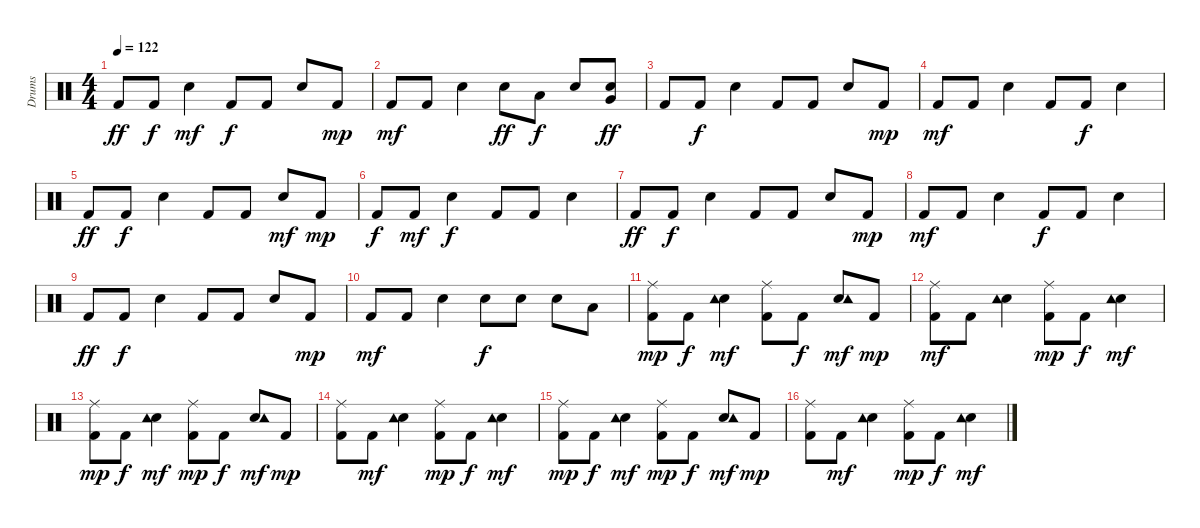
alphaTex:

\track ("Drums" "Drums") {instrument percussion}
\staff {score}
\articulation defaults
\ts (4 4)
\tempo 122
\clef neutral
\ks c "Kick (hit) 2".8{dy ff} "Kick (hit) 2".8{dy f} "Snare (hit) 2".4{dy mf} "Kick (hit) 2".8{dy f} "Kick (hit) 2".8 "Snare (hit) 2".8 "Kick (hit) 2".8{dy mp}
|
"Kick (hit) 2".8{dy mf} "Kick (hit) 2".8 "Snare (hit) 2".4 "Snare (hit) 2".8{dy ff} "Low Tom (hit)".8{dy f} "Snare (hit) 2".8 ("Snare (hit) 2" "Very Low Tom (hit)").8{dy ff} |
"Kick (hit) 2".8 "Kick (hit) 2".8{dy f} "Snare (hit) 2".4 "Kick (hit) 2".8 "Kick (hit) 2".8 "Snare (hit) 2".8 "Kick (hit) 2".8{dy mp} |
"Kick (hit) 2".8{dy mf} "Kick (hit) 2".8 "Snare (hit) 2".4 "Kick (hit) 2".8 "Kick (hit) 2".8{dy f} "Snare (hit) 2".4 |
"Kick (hit) 2".8{dy ff} "Kick (hit) 2".8{dy f} "Snare (hit) 2".4 "Kick (hit) 2".8 "Kick (hit) 2".8 "Snare (hit) 2".8{dy mf} "Kick (hit) 2".8{dy mp} |
"Kick (hit) 2".8{dy f} "Kick (hit) 2".8{dy mf} "Snare (hit) 2".4{dy f} "Kick (hit) 2".8 "Kick (hit) 2".8 "Snare (hit) 2".4 |
"Kick (hit) 2".8{dy ff} "Kick (hit) 2".8{dy f} "Snare (hit) 2".4 "Kick (hit) 2".8 "Kick (hit) 2".8 "Snare (hit) 2".8 "Kick (hit) 2".8{dy mp} |
"Kick (hit) 2".8{dy mf} "Kick (hit) 2".8 "Snare (hit) 2".4 "Kick (hit) 2".8{dy f} "Kick (hit) 2".8 "Snare (hit) 2".4 |
"Kick (hit) 2".8{dy ff} "Kick (hit) 2".8{dy f} "Snare (hit) 2".4 "Kick (hit) 2".8 "Kick (hit) 2".8 "Snare (hit) 2".8 "Kick (hit) 2".8{dy mp} |
"Kick (hit) 2".8{dy mf} "Kick (hit) 2".8 "Snare (hit) 2".4 "Snare (hit) 2".8{dy f} "Snare (hit) 2".8 "Snare (hit) 2".8 "Low Tom (hit)".8 |
("Kick (hit) 2" "Ride (middle)").8{dy mp} "Kick (hit) 2".8{dy f} ("Snare (hit) 2" "Tambourine (hit)").4{dy mf} ("Kick (hit) 2" "Ride (middle)").8 "Kick (hit) 2".8{dy f} ("Snare (hit) 2" "Tambourine (hit)").8{dy mf} "Kick (hit) 2".8{dy mp} |
("Kick (hit) 2" "Ride (middle)").8{dy mf} "Kick (hit) 2".8 ("Snare (hit) 2" "Tambourine (hit)").4 ("Kick (hit) 2" "Ride (middle)").8{dy mp} "Kick (hit) 2".8{dy f} ("Snare (hit) 2" "Tambourine (hit)").4{dy mf} |
("Kick (hit) 2" "Ride (middle)").8{dy mp} "Kick (hit) 2".8{dy f} ("Snare (hit) 2" "Tambourine (hit)").4{dy mf} ("Kick (hit) 2" "Ride (middle)").8{dy mp} "Kick (hit) 2".8{dy f} ("Snare (hit) 2" "Tambourine (hit)").8{dy mf} "Kick (hit) 2".8{dy mp} |
("Kick (hit) 2" "Ride (middle)").8 "Kick (hit) 2".8{dy mf} ("Snare (hit) 2" "Tambourine (hit)").4 ("Kick (hit) 2" "Ride (middle)").8{dy mp} "Kick (hit) 2".8{dy f} ("Snare (hit) 2" "Tambourine (hit)").4{dy mf} |
("Kick (hit) 2" "Ride (middle)").8{dy mp} "Kick (hit) 2".8{dy f} ("Snare (hit) 2" "Tambourine (hit)").4{dy mf} ("Kick (hit) 2" "Ride (middle)").8{dy mp} "Kick (hit) 2".8{dy f} ("Snare (hit) 2" "Tambourine (hit)").8{dy mf} "Kick (hit) 2".8{dy mp} |
("Kick (hit) 2" "Ride (middle)").8 "Kick (hit) 2".8{dy mf} ("Snare (hit) 2" "Tambourine (hit)").4 ("Kick (hit) 2" "Ride (middle)").8{dy mp} "Kick (hit) 2".8{dy f} ("Snare (hit) 2" "Tambourine (hit)").4{dy mf}
